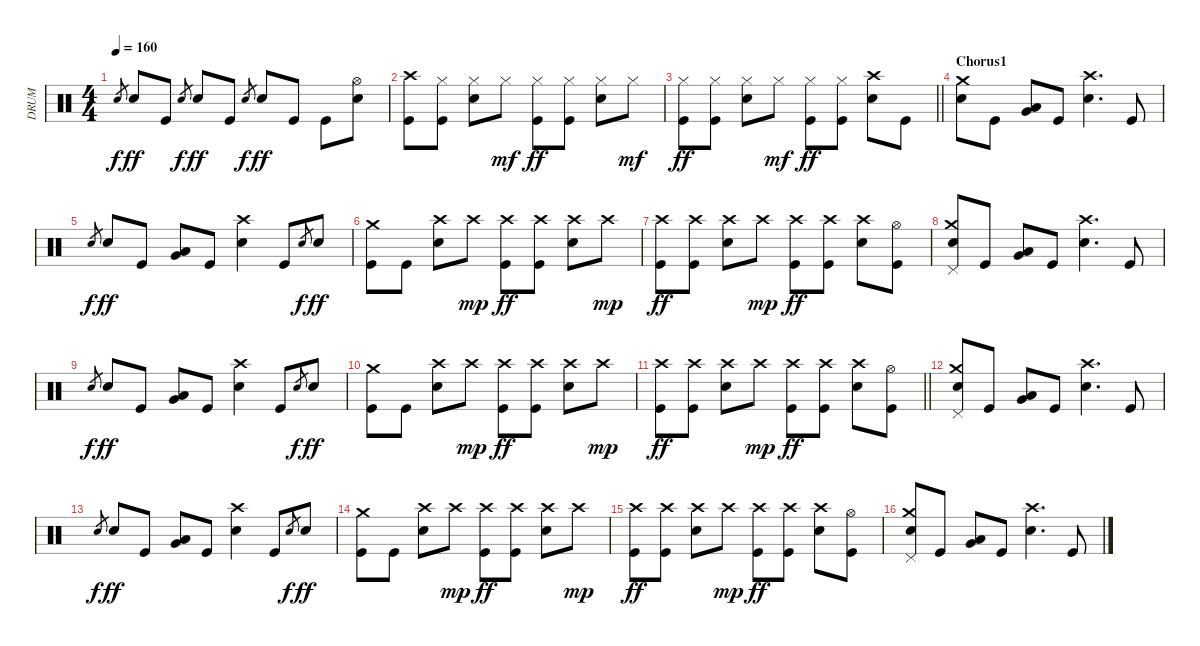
\track ("DRUM" "DRUM") {instrument percussion}
\staff {score}
\articulation defaults
\ts (4 4)
\tempo 160
\clef neutral
\ks c "Electric Snare (hit)".8{gr dy f} "Electric Snare (hit)".8{dy ff} "Kick (hit)".8 "Electric Snare (hit)".8{gr dy f} "Electric Snare (hit)".8{dy ff} "Kick (hit)".8 "Electric Snare (hit)".8{gr dy f} "Electric Snare (hit)".8{dy ff} "Kick (hit)".8 "Kick (hit)".8
("Hi-Hat (open)" "Electric Snare (hit)").8 |
("Crash high (hit)" "Kick (hit)").8 ("Hi-Hat (closed)" "Kick (hit)").8 ("Hi-Hat (closed)" "Electric Snare (hit)").8 "Hi-Hat (closed)".8{dy mf} ("Hi-Hat (closed)" "Kick (hit)").8{dy ff} ("Hi-Hat (closed)" "Kick (hit)").8 ("Hi-Hat (closed)" "Electric Snare (hit)").8 "Hi-Hat (closed)".8{dy mf} |
\barLineRight lightlight
("Hi-Hat (closed)" "Kick (hit)").8{dy ff} ("Hi-Hat (closed)" "Kick (hit)").8 ("Hi-Hat (closed)" "Electric Snare (hit)").8 "Hi-Hat (closed)".8{dy mf} ("Hi-Hat (closed)" "Kick (hit)").8{dy ff} ("Hi-Hat (closed)" "Kick (hit)").8 ("Crash high (hit)" "Electric Snare (hit)").8 "Kick (hit)".8 |
\section ("" "Chorus1")
("Crash medium (hit)" "Electric Snare (hit)").8 "Kick (hit)".8 ("Very Low Tom (hit)" "Low Floor Tom (hit)").8 "Kick (hit)".8 ("Crash high (hit)" "Electric Snare (hit)").4{d} "Kick (hit)".8 |
"Electric Snare (hit)".8{gr dy f} "Electric Snare (hit)".8{dy ff} "Kick (hit)".8 ("Very Low Tom (hit)" "Low Floor Tom (hit)").8 "Kick (hit)".8 ("Crash high (hit)" "Electric Snare (hit)").4 "Kick (hit)".8 "Electric Snare (hit)".8{gr dy f} "Electric Snare (hit)".8{dy ff} |
("Crash medium (hit)" "Kick (hit)").8 "Kick (hit)".8 ("Crash high (hit)" "Electric Snare (hit)").8 "Crash high (hit)".8{dy mp} ("Crash high (hit)" "Kick (hit)").8{dy ff} ("Crash high (hit)" "Kick (hit)").8 ("Crash high (hit)" "Electric Snare (hit)").8 "Crash high (hit)".8{dy mp} |
("Crash high (hit)" "Kick (hit)").8{dy ff} ("Crash high (hit)" "Kick (hit)").8 ("Crash high (hit)" "Electric Snare (hit)").8 "Crash high (hit)".8{dy mp} ("Crash high (hit)" "Kick (hit)").8{dy ff} ("Crash high (hit)" "Kick (hit)").8 ("Crash high (hit)" "Electric Snare (hit)").8 ("Hi-Hat (open)" "Kick (hit)").8 |
("Crash medium (hit)" "Pedal Hi-Hat (hit)" "Electric Snare (hit)").8 "Kick (hit)".8 ("Very Low Tom (hit)" "Low Floor Tom (hit)").8 "Kick (hit)".8 ("Crash high (hit)" "Electric Snare (hit)").4{d} "Kick (hit)".8 |
"Electric Snare (hit)".8{gr dy f} "Electric Snare (hit)".8{dy ff} "Kick (hit)".8 ("Very Low Tom (hit)" "Low Floor Tom (hit)").8 "Kick (hit)".8 ("Crash high (hit)" "Electric Snare (hit)").4 "Kick (hit)".8 "Electric Snare (hit)".8{gr dy f} "Electric Snare (hit)".8{dy ff} |
("Crash medium (hit)" "Kick (hit)").8 "Kick (hit)".8 ("Crash high (hit)" "Electric Snare (hit)").8 "Crash high (hit)".8{dy mp} ("Crash high (hit)" "Kick (hit)").8{dy ff} ("Crash high (hit)" "Kick (hit)").8 ("Crash high (hit)" "Electric Snare (hit)").8 "Crash high (hit)".8{dy mp} |
\barLineRight lightlight
("Crash high (hit)" "Kick (hit)").8{dy ff} ("Crash high (hit)" "Kick (hit)").8 ("Crash high (hit)" "Electric Snare (hit)").8 "Crash high (hit)".8{dy mp} ("Crash high (hit)" "Kick (hit)").8{dy ff} ("Crash high (hit)" "Kick (hit)").8 ("Crash high (hit)" "Electric Snare (hit)").8 ("Hi-Hat (open)" "Kick (hit)").8 |
("Crash medium (hit)" "Pedal Hi-Hat (hit)" "Electric Snare (hit)").8 "Kick (hit)".8 ("Very Low Tom (hit)" "Low Floor Tom (hit)").8 "Kick (hit)".8 ("Crash high (hit)" "Electric Snare (hit)").4{d} "Kick (hit)".8 |
"Electric Snare (hit)".8{gr dy f} "Electric Snare (hit)".8{dy ff} "Kick (hit)".8 ("Very Low Tom (hit)" "Low Floor Tom (hit)").8 "Kick (hit)".8 ("Crash high (hit)" "Electric Snare (hit)").4 "Kick (hit)".8 "Electric Snare (hit)".8{gr dy f} "Electric Snare (hit)".8{dy ff} |
("Crash medium (hit)" "Kick (hit)").8 "Kick (hit)".8 ("Crash high (hit)" "Electric Snare (hit)").8 "Crash high (hit)".8{dy mp} ("Crash high (hit)" "Kick (hit)").8{dy ff} ("Crash high (hit)" "Kick (hit)").8 ("Crash high (hit)" "Electric Snare (hit)").8 "Crash high (hit)".8{dy mp} |
("Crash high (hit)" "Kick (hit)").8{dy ff} ("Crash high (hit)" "Kick (hit)").8 ("Crash high (hit)" "Electric Snare (hit)").8 "Crash high (hit)".8{dy mp} ("Crash high (hit)" "Kick (hit)").8{dy ff} ("Crash high (hit)" "Kick (hit)").8 ("Crash high (hit)" "Electric Snare (hit)").8 ("Hi-Hat (open)" "Kick (hit)").8 |
("Crash medium (hit)" "Pedal Hi-Hat (hit)" "Electric Snare (hit)").8 "Kick (hit)".8 ("Very Low Tom (hit)" "Low Floor Tom (hit)").8 "Kick (hit)".8 ("Crash high (hit)" "Electric Snare (hit)").4{d} "Kick (hit)".8
